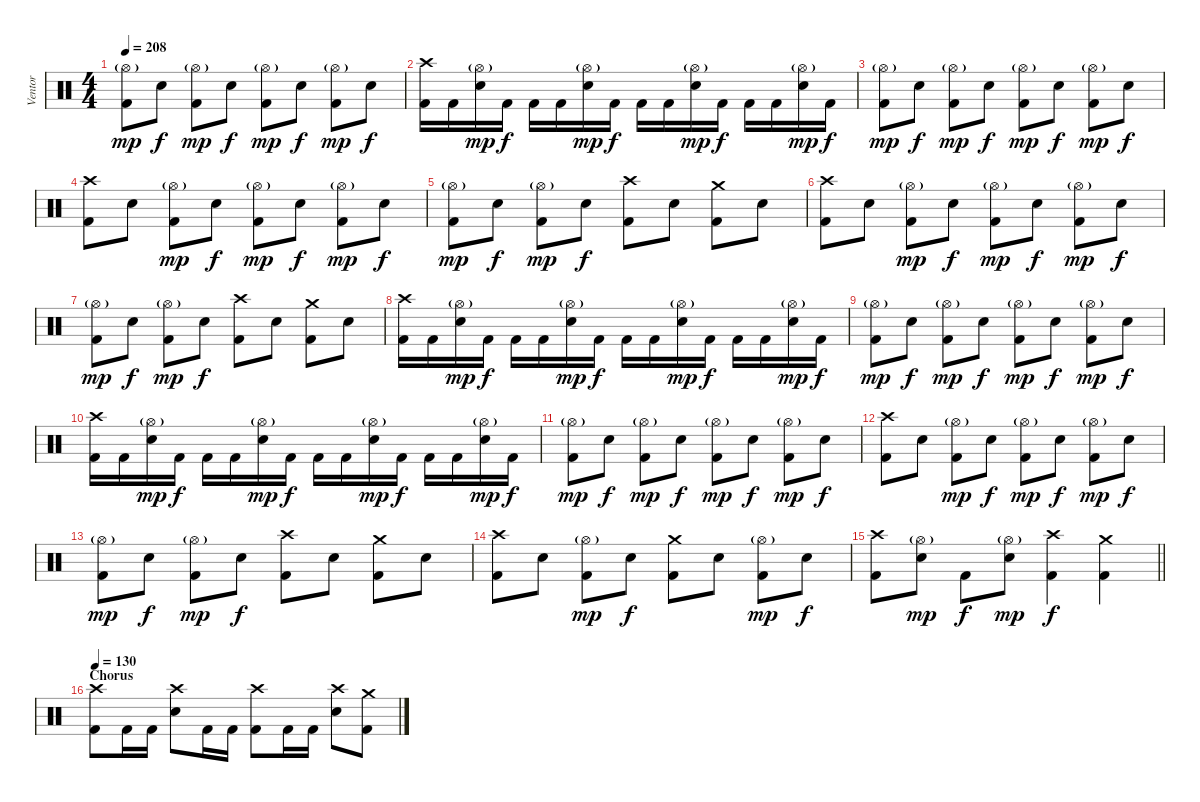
\track ("Ventor" "Ventor") {instrument percussion}
\staff {score}
\articulation defaults
\ts (4 4)
\tempo 208
\clef neutral
\ks c
("Hi-Hat (open)"{g} "Kick (hit) 2").8{dy mp} "Electric Snare (hit)".8{dy f} ("Hi-Hat (open)"{g} "Kick (hit) 2").8{dy mp} "Electric Snare (hit)".8{dy f} ("Hi-Hat (open)"{g} "Kick (hit) 2").8{dy mp} "Electric Snare (hit)".8{dy f} ("Hi-Hat (open)"{g} "Kick (hit) 2").8{dy mp} "Electric Snare (hit)".8{dy f} |
("Crash high (hit)" "Kick (hit) 2").16 "Kick (hit) 2".16 ("Hi-Hat (open)"{g} "Electric Snare (hit)").16{dy mp} "Kick (hit) 2".16{dy f} "Kick (hit) 2".16 "Kick (hit) 2".16 ("Hi-Hat (open)"{g} "Electric Snare (hit)").16{dy mp} "Kick (hit) 2".16{dy f} "Kick (hit) 2".16 "Kick (hit) 2".16 ("Hi-Hat (open)"{g} "Electric Snare (hit)").16{dy mp} "Kick (hit) 2".16{dy f} "Kick (hit) 2".16 "Kick (hit) 2".16 ("Hi-Hat (open)"{g} "Electric Snare (hit)").16{dy mp} "Kick (hit) 2".16{dy f} |
("Hi-Hat (open)"{g} "Kick (hit) 2").8{dy mp} "Electric Snare (hit)".8{dy f} ("Hi-Hat (open)"{g} "Kick (hit) 2").8{dy mp} "Electric Snare (hit)".8{dy f} ("Hi-Hat (open)"{g} "Kick (hit) 2").8{dy mp} "Electric Snare (hit)".8{dy f} ("Hi-Hat (open)"{g} "Kick (hit) 2").8{dy mp} "Electric Snare (hit)".8{dy f} |
("Crash high (hit)" "Kick (hit) 2").8 "Electric Snare (hit)".8 ("Hi-Hat (open)"{g} "Kick (hit) 2").8{dy mp} "Electric Snare (hit)".8{dy f} ("Hi-Hat (open)"{g} "Kick (hit) 2").8{dy mp} "Electric Snare (hit)".8{dy f} ("Hi-Hat (open)"{g} "Kick (hit) 2").8{dy mp} "Electric Snare (hit)".8{dy f} |
("Hi-Hat (open)"{g} "Kick (hit) 2").8{dy mp} "Electric Snare (hit)".8{dy f} ("Hi-Hat (open)"{g} "Kick (hit) 2").8{dy mp} "Electric Snare (hit)".8{dy f} ("Crash high (hit)" "Kick (hit) 2").8 "Electric Snare (hit)".8 ("Crash medium (hit)" "Kick (hit) 2").8 "Electric Snare (hit)".8 |
("Crash high (hit)" "Kick (hit) 2").8 "Electric Snare (hit)".8 ("Hi-Hat (open)"{g} "Kick (hit) 2").8{dy mp} "Electric Snare (hit)".8{dy f} ("Hi-Hat (open)"{g} "Kick (hit) 2").8{dy mp} "Electric Snare (hit)".8{dy f} ("Hi-Hat (open)"{g} "Kick (hit) 2").8{dy mp} "Electric Snare (hit)".8{dy f} |
("Hi-Hat (open)"{g} "Kick (hit) 2").8{dy mp} "Electric Snare (hit)".8{dy f} ("Hi-Hat (open)"{g} "Kick (hit) 2").8{dy mp} "Electric Snare (hit)".8{dy f} ("Crash high (hit)" "Kick (hit) 2").8 "Electric Snare (hit)".8 ("Crash medium (hit)" "Kick (hit) 2").8 "Electric Snare (hit)".8 |
("Crash high (hit)" "Kick (hit) 2").16 "Kick (hit) 2".16 ("Hi-Hat (open)"{g} "Electric Snare (hit)").16{dy mp} "Kick (hit) 2".16{dy f} "Kick (hit) 2".16 "Kick (hit) 2".16 ("Hi-Hat (open)"{g} "Electric Snare (hit)").16{dy mp} "Kick (hit) 2".16{dy f} "Kick (hit) 2".16 "Kick (hit) 2".16 ("Hi-Hat (open)"{g} "Electric Snare (hit)").16{dy mp} "Kick (hit) 2".16{dy f} "Kick (hit) 2".16 "Kick (hit) 2".16 ("Hi-Hat (open)"{g} "Electric Snare (hit)").16{dy mp} "Kick (hit) 2".16{dy f} |
("Hi-Hat (open)"{g} "Kick (hit) 2").8{dy mp} "Electric Snare (hit)".8{dy f} ("Hi-Hat (open)"{g} "Kick (hit) 2").8{dy mp} "Electric Snare (hit)".8{dy f} ("Hi-Hat (open)"{g} "Kick (hit) 2").8{dy mp} "Electric Snare (hit)".8{dy f} ("Hi-Hat (open)"{g} "Kick (hit) 2").8{dy mp} "Electric Snare (hit)".8{dy f} |
("Crash high (hit)" "Kick (hit) 2").16 "Kick (hit) 2".16 ("Hi-Hat (open)"{g} "Electric Snare (hit)").16{dy mp} "Kick (hit) 2".16{dy f} "Kick (hit) 2".16 "Kick (hit) 2".16 ("Hi-Hat (open)"{g} "Electric Snare (hit)").16{dy mp} "Kick (hit) 2".16{dy f} "Kick (hit) 2".16 "Kick (hit) 2".16 ("Hi-Hat (open)"{g} "Electric Snare (hit)").16{dy mp} "Kick (hit) 2".16{dy f} "Kick (hit) 2".16 "Kick (hit) 2".16 ("Hi-Hat (open)"{g} "Electric Snare (hit)").16{dy mp} "Kick (hit) 2".16{dy f} |
("Hi-Hat (open)"{g} "Kick (hit) 2").8{dy mp} "Electric Snare (hit)".8{dy f} ("Hi-Hat (open)"{g} "Kick (hit) 2").8{dy mp} "Electric Snare (hit)".8{dy f} ("Hi-Hat (open)"{g} "Kick (hit) 2").8{dy mp} "Electric Snare (hit)".8{dy f} ("Hi-Hat (open)"{g} "Kick (hit) 2").8{dy mp} "Electric Snare (hit)".8{dy f} |
("Crash high (hit)" "Kick (hit) 2").8 "Electric Snare (hit)".8 ("Hi-Hat (open)"{g} "Kick (hit) 2").8{dy mp} "Electric Snare (hit)".8{dy f} ("Hi-Hat (open)"{g} "Kick (hit) 2").8{dy mp} "Electric Snare (hit)".8{dy f} ("Hi-Hat (open)"{g} "Kick (hit) 2").8{dy mp} "Electric Snare (hit)".8{dy f} |
("Hi-Hat (open)"{g} "Kick (hit) 2").8{dy mp} "Electric Snare (hit)".8{dy f} ("Hi-Hat (open)"{g} "Kick (hit) 2").8{dy mp} "Electric Snare (hit)".8{dy f} ("Crash high (hit)" "Kick (hit) 2").8 "Electric Snare (hit)".8 ("Crash medium (hit)" "Kick (hit) 2").8 "Electric Snare (hit)".8 |
("Crash high (hit)" "Kick (hit) 2").8 "Electric Snare (hit)".8 ("Hi-Hat (open)"{g} "Kick (hit) 2").8{dy mp} "Electric Snare (hit)".8{dy f} ("Crash medium (hit)" "Kick (hit) 2").8 "Electric Snare (hit)".8 ("Hi-Hat (open)"{g} "Kick (hit) 2").8{dy mp} "Electric Snare (hit)".8{dy f} |
\barLineRight lightlight
("Crash high (hit)" "Kick (hit) 2").8 ("Hi-Hat (open)"{g} "Electric Snare (hit)").8{dy mp} "Kick (hit) 2".8{dy f} ("Hi-Hat (open)"{g} "Electric Snare (hit)").8{dy mp} ("Crash high (hit)" "Kick (hit) 2").4{dy f} ("Crash medium (hit)" "Kick (hit) 2").4 |
\section ("" "Chorus")
\tempo 130
("Crash high (hit)" "Kick (hit) 2").8 "Kick (hit) 2".16 "Kick (hit) 2".16 ("Crash high (hit)" "Electric Snare (hit)").8 "Kick (hit) 2".16 "Kick (hit) 2".16 ("Crash high (hit)" "Kick (hit) 2").8 "Kick (hit) 2".16 "Kick (hit) 2".16 ("Crash high (hit)" "Electric Snare (hit)").8 ("Crash medium (hit)" "Kick (hit) 2").8
